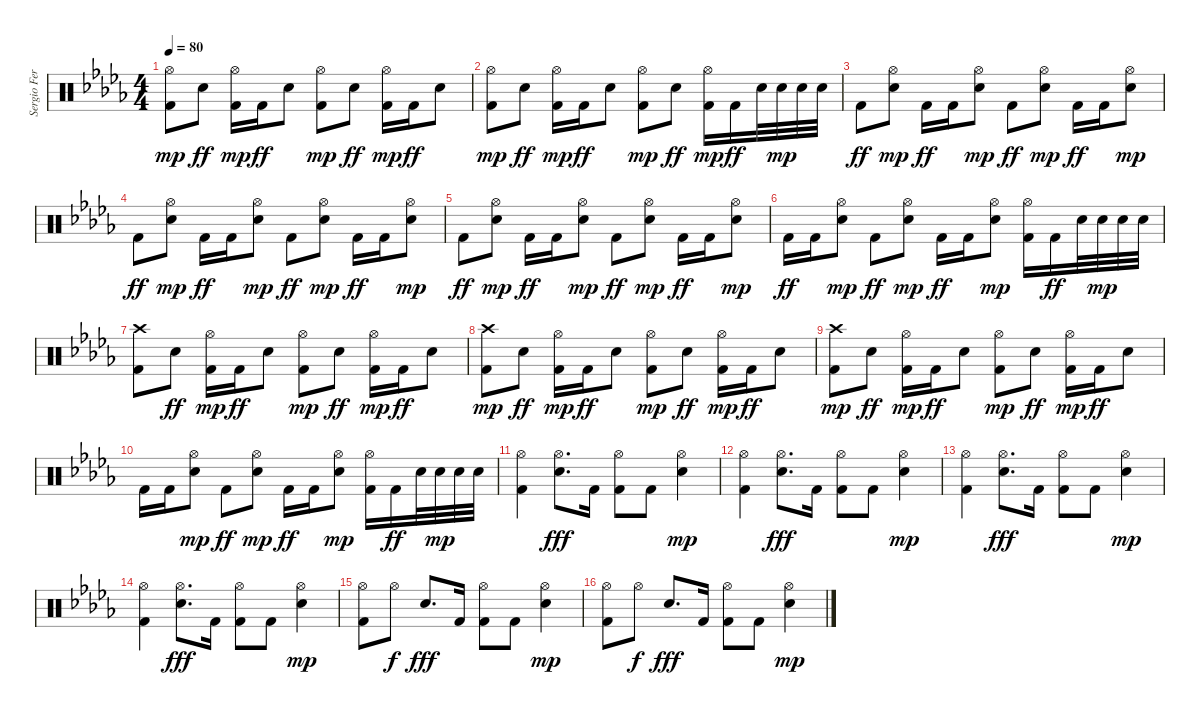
\track ("Sergio Fernandez \"Taz\"" "Sergio Fer") {instrument percussion}
\staff {score}
\articulation defaults
\ts (4 4)
\tempo 80
\clef neutral
\ks bbminor
("Kick (hit) 2" "Hi-Hat (open)").8{dy mp} "Electric Snare (hit)".8{dy ff} ("Kick (hit) 2" "Hi-Hat (open)").16{dy mp} "Kick (hit) 2".16{dy ff} "Electric Snare (hit)".8 ("Kick (hit) 2" "Hi-Hat (open)").8{dy mp} "Electric Snare (hit)".8{dy ff} ("Kick (hit) 2" "Hi-Hat (open)").16{dy mp} "Kick (hit) 2".16{dy ff} "Electric Snare (hit)".8 |
("Kick (hit) 2" "Hi-Hat (open)").8{dy mp} "Electric Snare (hit)".8{dy ff} ("Kick (hit) 2" "Hi-Hat (open)").16{dy mp} "Kick (hit) 2".16{dy ff} "Electric Snare (hit)".8 ("Kick (hit) 2" "Hi-Hat (open)").8{dy mp} "Electric Snare (hit)".8{dy ff} ("Kick (hit) 2" "Hi-Hat (open)").16{dy mp} "Kick (hit) 2".16{dy ff} "Electric Snare (hit)".32 "Electric Snare (hit)".32{dy mp} "Electric Snare (hit)".32 "Electric Snare (hit)".32 |
"Kick (hit) 2".8{dy ff} ("Electric Snare (hit)" "Hi-Hat (open)").8{dy mp} "Kick (hit) 2".16{dy ff} "Kick (hit) 2".16 ("Electric Snare (hit)" "Hi-Hat (open)").8{dy mp} "Kick (hit) 2".8{dy ff} ("Electric Snare (hit)" "Hi-Hat (open)").8{dy mp} "Kick (hit) 2".16{dy ff} "Kick (hit) 2".16 ("Electric Snare (hit)" "Hi-Hat (open)").8{dy mp} |
"Kick (hit) 2".8{dy ff} ("Electric Snare (hit)" "Hi-Hat (open)").8{dy mp} "Kick (hit) 2".16{dy ff} "Kick (hit) 2".16 ("Electric Snare (hit)" "Hi-Hat (open)").8{dy mp} "Kick (hit) 2".8{dy ff} ("Electric Snare (hit)" "Hi-Hat (open)").8{dy mp} "Kick (hit) 2".16{dy ff} "Kick (hit) 2".16 ("Electric Snare (hit)" "Hi-Hat (open)").8{dy mp} |
"Kick (hit) 2".8{dy ff} ("Electric Snare (hit)" "Hi-Hat (open)").8{dy mp} "Kick (hit) 2".16{dy ff} "Kick (hit) 2".16 ("Electric Snare (hit)" "Hi-Hat (open)").8{dy mp} "Kick (hit) 2".8{dy ff} ("Electric Snare (hit)" "Hi-Hat (open)").8{dy mp} "Kick (hit) 2".16{dy ff} "Kick (hit) 2".16 ("Electric Snare (hit)" "Hi-Hat (open)").8{dy mp} |
"Kick (hit) 2".16{dy ff} "Kick (hit) 2".16 ("Electric Snare (hit)" "Hi-Hat (open)").8{dy mp} "Kick (hit) 2".8{dy ff} ("Electric Snare (hit)" "Hi-Hat (open)").8{dy mp} "Kick (hit) 2".16{dy ff} "Kick (hit) 2".16 ("Electric Snare (hit)" "Hi-Hat (open)").8{dy mp} ("Kick (hit) 2" "Hi-Hat (open)").16 "Kick (hit) 2".16{dy ff} "Electric Snare (hit)".32 "Electric Snare (hit)".32{dy mp} "Electric Snare (hit)".32 "Electric Snare (hit)".32 |
("Kick (hit) 2" "Crash high (hit)").8 "Electric Snare (hit)".8{dy ff} ("Kick (hit) 2" "Hi-Hat (open)").16{dy mp} "Kick (hit) 2".16{dy ff} "Electric Snare (hit)".8 ("Kick (hit) 2" "Hi-Hat (open)").8{dy mp} "Electric Snare (hit)".8{dy ff} ("Kick (hit) 2" "Hi-Hat (open)").16{dy mp} "Kick (hit) 2".16{dy ff} "Electric Snare (hit)".8 |
("Kick (hit) 2" "Crash high (hit)").8{dy mp} "Electric Snare (hit)".8{dy ff} ("Kick (hit) 2" "Hi-Hat (open)").16{dy mp} "Kick (hit) 2".16{dy ff} "Electric Snare (hit)".8 ("Kick (hit) 2" "Hi-Hat (open)").8{dy mp} "Electric Snare (hit)".8{dy ff} ("Kick (hit) 2" "Hi-Hat (open)").16{dy mp} "Kick (hit) 2".16{dy ff} "Electric Snare (hit)".8 |
("Kick (hit) 2" "Crash high (hit)").8{dy mp} "Electric Snare (hit)".8{dy ff} ("Kick (hit) 2" "Hi-Hat (open)").16{dy mp} "Kick (hit) 2".16{dy ff} "Electric Snare (hit)".8 ("Kick (hit) 2" "Hi-Hat (open)").8{dy mp} "Electric Snare (hit)".8{dy ff} ("Kick (hit) 2" "Hi-Hat (open)").16{dy mp} "Kick (hit) 2".16{dy ff} "Electric Snare (hit)".8 |
"Kick (hit) 2".16 "Kick (hit) 2".16 ("Electric Snare (hit)" "Hi-Hat (open)").8{dy mp} "Kick (hit) 2".8{dy ff} ("Electric Snare (hit)" "Hi-Hat (open)").8{dy mp} "Kick (hit) 2".16{dy ff} "Kick (hit) 2".16 ("Electric Snare (hit)" "Hi-Hat (open)").8{dy mp} ("Kick (hit) 2" "Hi-Hat (open)").16 "Kick (hit) 2".16{dy ff} "Electric Snare (hit)".32 "Electric Snare (hit)".32{dy mp} "Electric Snare (hit)".32 "Electric Snare (hit)".32 |
("Kick (hit) 2" "Hi-Hat (open)").4 ("Hi-Hat (open)" "Snare (hit) 2").8{d dy fff} "Kick (hit) 2".16 ("Hi-Hat (open)" "Kick (hit) 2").8 "Kick (hit) 2".8 ("Snare (hit) 2" "Hi-Hat (open)").4{dy mp} |
("Kick (hit) 2" "Hi-Hat (open)").4 ("Hi-Hat (open)" "Snare (hit) 2").8{d dy fff} "Kick (hit) 2".16 ("Hi-Hat (open)" "Kick (hit) 2").8 "Kick (hit) 2".8 ("Snare (hit) 2" "Hi-Hat (open)").4{dy mp} |
("Kick (hit) 2" "Hi-Hat (open)").4 ("Hi-Hat (open)" "Snare (hit) 2").8{d dy fff} "Kick (hit) 2".16 ("Hi-Hat (open)" "Kick (hit) 2").8 "Kick (hit) 2".8 ("Snare (hit) 2" "Hi-Hat (open)").4{dy mp} |
("Kick (hit) 2" "Hi-Hat (open)").4 ("Hi-Hat (open)" "Snare (hit) 2").8{d dy fff} "Kick (hit) 2".16 ("Hi-Hat (open)" "Kick (hit) 2").8 "Kick (hit) 2".8 ("Snare (hit) 2" "Hi-Hat (open)").4{dy mp} |
("Kick (hit) 2" "Hi-Hat (open)").8 "Hi-Hat (open)".8{dy f} "Snare (hit) 2".8{d dy fff} "Kick (hit) 2".16 ("Hi-Hat (open)" "Kick (hit) 2").8 "Kick (hit) 2".8 ("Snare (hit) 2" "Hi-Hat (open)").4{dy mp} |
("Kick (hit) 2" "Hi-Hat (open)").8 "Hi-Hat (open)".8{dy f} "Snare (hit) 2".8{d dy fff} "Kick (hit) 2".16 ("Hi-Hat (open)" "Kick (hit) 2").8 "Kick (hit) 2".8 ("Snare (hit) 2" "Hi-Hat (open)").4{dy mp}
